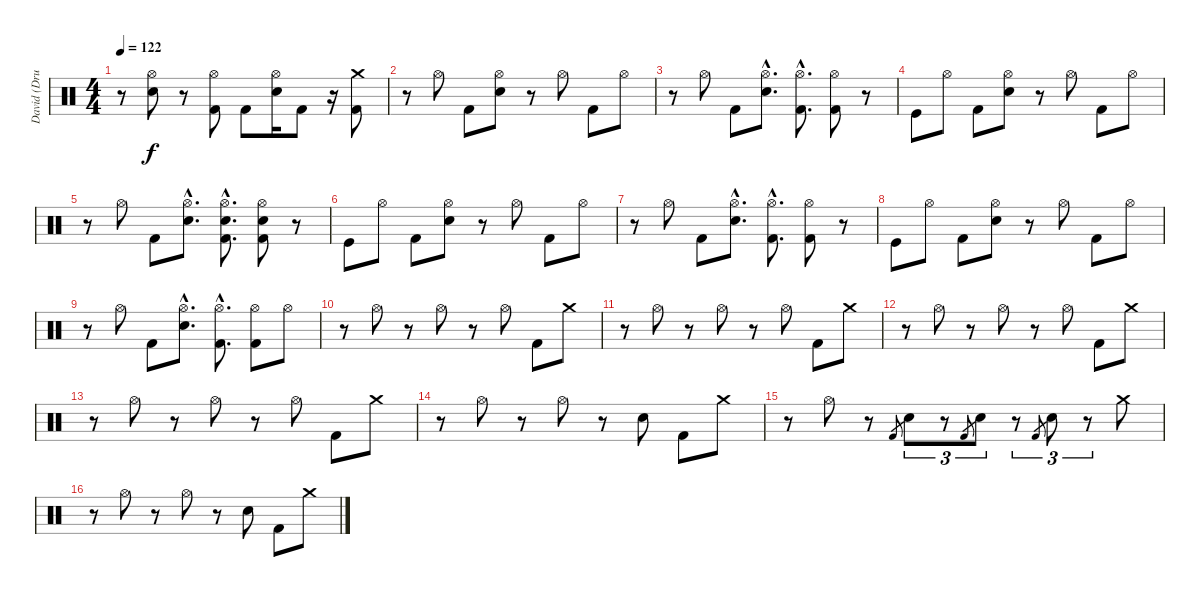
\track ("David (Drums)" "David (Dru") {instrument percussion}
\staff {score}
\articulation defaults
\ts (4 4)
\tempo 122
\clef neutral
\ks c
r.8{dy f} ("Hi-Hat (open)" "Electric Snare (hit)").8 r.8 ("Hi-Hat (open)" "Kick (hit) 2").8 "Kick (hit) 2".8 ("Hi-Hat (open)" "Electric Snare (hit)").16 "Kick (hit) 2".8 r.16 ("Crash medium (hit)" "Kick (hit) 2").8 |
r.8 "Hi-Hat (open)".8 "Kick (hit) 2".8 ("Hi-Hat (open)" "Electric Snare (hit)").8 r.8 "Hi-Hat (open)".8 "Kick (hit) 2".8 "Hi-Hat (open)".8 |
r.8 "Hi-Hat (open)".8 "Kick (hit) 2".8 ("Hi-Hat (open)"{hac} "Electric Snare (hit)"{hac}).8{d} ("Hi-Hat (open)"{hac} "Kick (hit) 2"{hac}).8{d} ("Hi-Hat (open)" "Kick (hit) 2").8 r.8 |
"Kick (hit)".8 "Hi-Hat (open)".8 "Kick (hit) 2".8 ("Hi-Hat (open)" "Electric Snare (hit)").8 r.8 "Hi-Hat (open)".8 "Kick (hit) 2".8 "Hi-Hat (open)".8 |
r.8 "Hi-Hat (open)".8 "Kick (hit) 2".8 ("Hi-Hat (open)"{hac} "Electric Snare (hit)"{hac}).8{d} ("Hi-Hat (open)"{hac} "Electric Snare (hit)"{hac} "Kick (hit) 2"{hac}).8{d} ("Hi-Hat (open)" "Electric Snare (hit)" "Kick (hit) 2").8 r.8 |
"Kick (hit)".8 "Hi-Hat (open)".8 "Kick (hit) 2".8 ("Hi-Hat (open)" "Electric Snare (hit)").8 r.8 "Hi-Hat (open)".8 "Kick (hit) 2".8 "Hi-Hat (open)".8 |
r.8 "Hi-Hat (open)".8 "Kick (hit) 2".8 ("Hi-Hat (open)"{hac} "Electric Snare (hit)"{hac}).8{d} ("Hi-Hat (open)"{hac} "Kick (hit) 2"{hac}).8{d} ("Hi-Hat (open)" "Kick (hit) 2").8 r.8 |
"Kick (hit)".8 "Hi-Hat (open)".8 "Kick (hit) 2".8 ("Hi-Hat (open)" "Electric Snare (hit)").8 r.8 "Hi-Hat (open)".8 "Kick (hit) 2".8 "Hi-Hat (open)".8 |
r.8 "Hi-Hat (open)".8 "Kick (hit) 2".8 ("Hi-Hat (open)"{hac} "Electric Snare (hit)"{hac}).8{d} ("Hi-Hat (open)"{hac} "Kick (hit) 2"{hac}).8{d} ("Hi-Hat (open)" "Kick (hit) 2").8 "Hi-Hat (open)".8 |
r.8 "Hi-Hat (open)".8 r.8 "Hi-Hat (open)".8 r.8 "Hi-Hat (open)".8 "Kick (hit) 2".8 "Crash medium (hit)".8 |
r.8 "Hi-Hat (open)".8 r.8 "Hi-Hat (open)".8 r.8 "Hi-Hat (open)".8 "Kick (hit) 2".8 "Crash medium (hit)".8 |
r.8 "Hi-Hat (open)".8 r.8 "Hi-Hat (open)".8 r.8 "Hi-Hat (open)".8 "Kick (hit) 2".8 "Crash medium (hit)".8 |
r.8 "Hi-Hat (open)".8 r.8 "Hi-Hat (open)".8 r.8 "Hi-Hat (open)".8 "Kick (hit) 2".8 "Crash medium (hit)".8 |
r.8 "Hi-Hat (open)".8 r.8 "Hi-Hat (open)".8 r.8 "Electric Snare (hit)".8 "Kick (hit) 2".8 "Crash medium (hit)".8 |
r.8 "Hi-Hat (open)".8 r.8 "Kick (hit) 2".8{gr} "Electric Snare (hit)".8{tu (3 2)} r.8{tu (3 2)} "Kick (hit) 2".8{gr} "Electric Snare (hit)".8{tu (3 2)} r.8{tu (3 2)} "Kick (hit) 2".8{gr} "Electric Snare (hit)".8{tu (3 2)} r.8{tu (3 2)} "Crash medium (hit)".8 |
r.8 "Hi-Hat (open)".8 r.8 "Hi-Hat (open)".8 r.8 "Electric Snare (hit)".8 "Kick (hit) 2".8 "Crash medium (hit)".8
